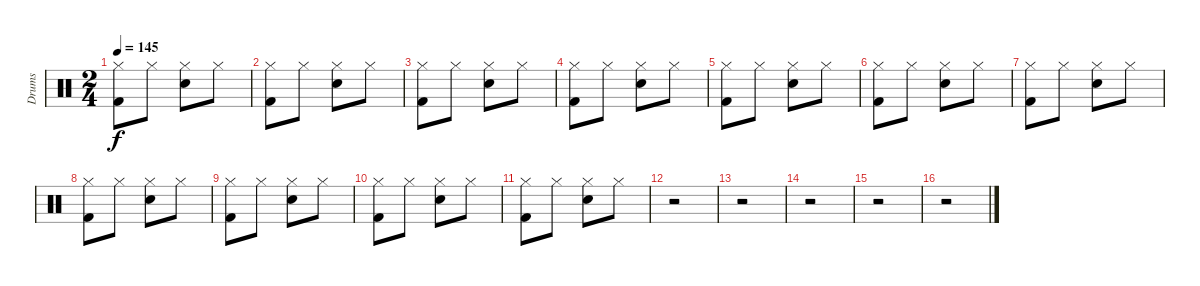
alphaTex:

\track ("Drums" "Drums") {instrument percussion}
\staff {score}
\articulation defaults
\ts (2 4)
\tempo 145
\clef neutral
\ks c
("Hi-Hat (closed)" "Kick (hit) 2").8{dy f} "Hi-Hat (closed)".8 ("Hi-Hat (closed)" "Snare (hit) 2").8 "Hi-Hat (closed)".8 |
("Hi-Hat (closed)" "Kick (hit) 2").8 "Hi-Hat (closed)".8 ("Hi-Hat (closed)" "Snare (hit) 2").8 "Hi-Hat (closed)".8 |
("Hi-Hat (closed)" "Kick (hit) 2").8 "Hi-Hat (closed)".8 ("Hi-Hat (closed)" "Snare (hit) 2").8 "Hi-Hat (closed)".8 |
("Hi-Hat (closed)" "Kick (hit) 2").8 "Hi-Hat (closed)".8 ("Hi-Hat (closed)" "Snare (hit) 2").8 "Hi-Hat (closed)".8 |
("Hi-Hat (closed)" "Kick (hit) 2").8 "Hi-Hat (closed)".8 ("Hi-Hat (closed)" "Snare (hit) 2").8 "Hi-Hat (closed)".8 |
("Hi-Hat (closed)" "Kick (hit) 2").8 "Hi-Hat (closed)".8 ("Hi-Hat (closed)" "Snare (hit) 2").8 "Hi-Hat (closed)".8 |
("Hi-Hat (closed)" "Kick (hit) 2").8 "Hi-Hat (closed)".8 ("Hi-Hat (closed)" "Snare (hit) 2").8 "Hi-Hat (closed)".8 |
("Hi-Hat (closed)" "Kick (hit) 2").8 "Hi-Hat (closed)".8 ("Hi-Hat (closed)" "Snare (hit) 2").8 "Hi-Hat (closed)".8 |
("Hi-Hat (closed)" "Kick (hit) 2").8 "Hi-Hat (closed)".8 ("Hi-Hat (closed)" "Snare (hit) 2").8 "Hi-Hat (closed)".8 |
("Hi-Hat (closed)" "Kick (hit) 2").8 "Hi-Hat (closed)".8 ("Hi-Hat (closed)" "Snare (hit) 2").8 "Hi-Hat (closed)".8 |
("Hi-Hat (closed)" "Kick (hit) 2").8 "Hi-Hat (closed)".8 ("Hi-Hat (closed)" "Snare (hit) 2").8 "Hi-Hat (closed)".8 |
r.2 |
r.2 |
r.2 |
r.2 |
r.2
